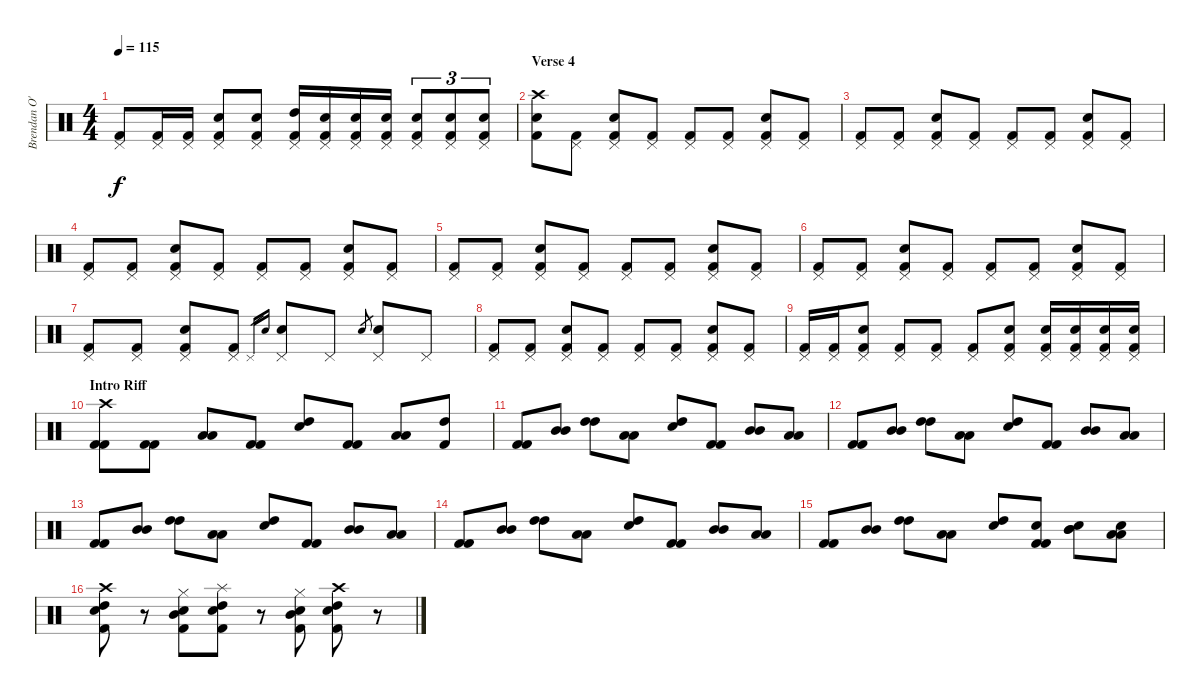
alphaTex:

\track ("Brendan O'Neill" "Brendan O'") {instrument percussion}
\staff {score}
\articulation defaults
\ts (4 4)
\tempo 115
\clef neutral
\ks c
("Pedal Hi-Hat (hit)" "Kick (hit) 2").8{dy f} ("Pedal Hi-Hat (hit)" "Kick (hit) 2").16 ("Pedal Hi-Hat (hit)" "Kick (hit) 2").16 ("Pedal Hi-Hat (hit)" "Snare (hit) 2" "Kick (hit) 2").8 ("Pedal Hi-Hat (hit)" "Electric Snare (hit)" "Kick (hit) 2").8 ("Pedal Hi-Hat (hit)" "High Tom (hit)" "Kick (hit) 2").16 ("Pedal Hi-Hat (hit)" "Snare (hit) 2" "Kick (hit) 2").16 ("Pedal Hi-Hat (hit)" "Snare (hit) 2" "Kick (hit) 2").16 ("Pedal Hi-Hat (hit)" "Electric Snare (hit)" "Kick (hit) 2").16 ("Pedal Hi-Hat (hit)" "Snare (hit) 2" "Kick (hit) 2").8{tu (3 2)} ("Pedal Hi-Hat (hit)" "Snare (hit) 2" "Kick (hit) 2").8{tu (3 2)} ("Pedal Hi-Hat (hit)" "Snare (hit) 2" "Kick (hit) 2").8{tu (3 2)} |
\section ("" "Verse 4")
("Crash high (hit)" "Snare (hit) 2" "Kick (hit) 2").8 ("Pedal Hi-Hat (hit)" "Kick (hit) 2").8 ("Pedal Hi-Hat (hit)" "Snare (hit) 2" "Kick (hit) 2").8 ("Pedal Hi-Hat (hit)" "Kick (hit) 2").8 ("Pedal Hi-Hat (hit)" "Kick (hit) 2").8 ("Pedal Hi-Hat (hit)" "Kick (hit) 2").8 ("Pedal Hi-Hat (hit)" "Snare (hit) 2" "Kick (hit) 2").8 ("Pedal Hi-Hat (hit)" "Kick (hit) 2").8 |
("Pedal Hi-Hat (hit)" "Kick (hit) 2").8 ("Pedal Hi-Hat (hit)" "Kick (hit) 2").8 ("Pedal Hi-Hat (hit)" "Snare (hit) 2" "Kick (hit) 2").8 ("Pedal Hi-Hat (hit)" "Kick (hit) 2").8 ("Pedal Hi-Hat (hit)" "Kick (hit) 2").8 ("Pedal Hi-Hat (hit)" "Kick (hit) 2").8 ("Pedal Hi-Hat (hit)" "Snare (hit) 2" "Kick (hit) 2").8 ("Pedal Hi-Hat (hit)" "Kick (hit) 2").8 |
("Pedal Hi-Hat (hit)" "Kick (hit) 2").8 ("Pedal Hi-Hat (hit)" "Kick (hit) 2").8 ("Pedal Hi-Hat (hit)" "Snare (hit) 2" "Kick (hit) 2").8 ("Pedal Hi-Hat (hit)" "Kick (hit) 2").8 ("Pedal Hi-Hat (hit)" "Kick (hit) 2").8 ("Pedal Hi-Hat (hit)" "Kick (hit) 2").8 ("Pedal Hi-Hat (hit)" "Snare (hit) 2" "Kick (hit) 2").8 ("Pedal Hi-Hat (hit)" "Kick (hit) 2").8 |
("Pedal Hi-Hat (hit)" "Kick (hit) 2").8 ("Pedal Hi-Hat (hit)" "Kick (hit) 2").8 ("Pedal Hi-Hat (hit)" "Snare (hit) 2" "Kick (hit) 2").8 ("Pedal Hi-Hat (hit)" "Kick (hit) 2").8 ("Pedal Hi-Hat (hit)" "Kick (hit) 2").8 ("Pedal Hi-Hat (hit)" "Kick (hit) 2").8 ("Pedal Hi-Hat (hit)" "Snare (hit) 2" "Kick (hit) 2").8 ("Pedal Hi-Hat (hit)" "Kick (hit) 2").8 |
("Pedal Hi-Hat (hit)" "Kick (hit) 2").8 ("Pedal Hi-Hat (hit)" "Kick (hit) 2").8 ("Pedal Hi-Hat (hit)" "Snare (hit) 2" "Kick (hit) 2").8 ("Pedal Hi-Hat (hit)" "Kick (hit) 2").8 ("Pedal Hi-Hat (hit)" "Kick (hit) 2").8 ("Pedal Hi-Hat (hit)" "Kick (hit) 2").8 ("Pedal Hi-Hat (hit)" "Snare (hit) 2" "Kick (hit) 2").8 ("Pedal Hi-Hat (hit)" "Kick (hit) 2").8 |
("Pedal Hi-Hat (hit)" "Kick (hit) 2").8 ("Pedal Hi-Hat (hit)" "Kick (hit) 2").8 ("Pedal Hi-Hat (hit)" "Snare (hit) 2" "Kick (hit) 2").8 ("Pedal Hi-Hat (hit)" "Kick (hit) 2").8 "Pedal Hi-Hat (hit)".16{gr} "Snare (hit) 2".16{gr} ("Pedal Hi-Hat (hit)" "Electric Snare (hit)").8 "Pedal Hi-Hat (hit)".8 "Snare (hit) 2".8{gr} ("Pedal Hi-Hat (hit)" "Electric Snare (hit)").8 "Pedal Hi-Hat (hit)".8 |
("Pedal Hi-Hat (hit)" "Kick (hit) 2").8 ("Pedal Hi-Hat (hit)" "Kick (hit) 2").8 ("Pedal Hi-Hat (hit)" "Snare (hit) 2" "Kick (hit) 2").8 ("Pedal Hi-Hat (hit)" "Kick (hit) 2").8 ("Pedal Hi-Hat (hit)" "Kick (hit) 2").8 ("Pedal Hi-Hat (hit)" "Kick (hit) 2").8 ("Pedal Hi-Hat (hit)" "Snare (hit) 2" "Kick (hit) 2").8 ("Pedal Hi-Hat (hit)" "Kick (hit) 2").8 |
("Pedal Hi-Hat (hit)" "Kick (hit) 2").16 ("Pedal Hi-Hat (hit)" "Kick (hit) 2").16 ("Pedal Hi-Hat (hit)" "Snare (hit) 2" "Kick (hit) 2").8 ("Pedal Hi-Hat (hit)" "Kick (hit) 2").8 ("Pedal Hi-Hat (hit)" "Kick (hit) 2").8 ("Pedal Hi-Hat (hit)" "Kick (hit) 2").8 ("Pedal Hi-Hat (hit)" "Snare (hit) 2" "Kick (hit) 2").8 ("Pedal Hi-Hat (hit)" "Electric Snare (hit)" "Kick (hit) 2").16 ("Pedal Hi-Hat (hit)" "Electric Snare (hit)" "Kick (hit) 2").16 ("Pedal Hi-Hat (hit)" "Electric Snare (hit)" "Kick (hit) 2").16 ("Pedal Hi-Hat (hit)" "Electric Snare (hit)" "Kick (hit) 2").16 |
\section ("" "Intro Riff")
("Crash high (hit)" "Kick (hit) 2" "Kick (hit) 2").8 ("Kick (hit) 2" "Kick (hit) 2").8 ("Low Tom (hit)" "Low Tom (hit)").8 ("Kick (hit) 2" "Kick (hit) 2").8 ("High Tom (hit)" "Electric Snare (hit)").8 ("Kick (hit) 2" "Kick (hit) 2").8 ("Low Tom (hit)" "Low Tom (hit)").8 ("High Tom (hit)" "Kick (hit) 2").8 |
("Kick (hit) 2" "Kick (hit) 2").8 ("Mid Tom (hit)" "Mid Tom (hit)").8 ("High Tom (hit)" "High Tom (hit)").8 ("Low Tom (hit)" "Low Tom (hit)").8 ("High Tom (hit)" "Electric Snare (hit)").8 ("Kick (hit) 2" "Kick (hit) 2").8 ("Mid Tom (hit)" "Mid Tom (hit)").8 ("Low Tom (hit)" "Low Tom (hit)").8 |
("Kick (hit) 2" "Kick (hit) 2").8 ("Mid Tom (hit)" "Mid Tom (hit)").8 ("High Tom (hit)" "High Tom (hit)").8 ("Low Tom (hit)" "Low Tom (hit)").8 ("High Tom (hit)" "Electric Snare (hit)").8 ("Kick (hit) 2" "Kick (hit) 2").8 ("Mid Tom (hit)" "Mid Tom (hit)").8 ("Low Tom (hit)" "Low Tom (hit)").8 |
("Kick (hit) 2" "Kick (hit) 2").8 ("Mid Tom (hit)" "Mid Tom (hit)").8 ("High Tom (hit)" "High Tom (hit)").8 ("Low Tom (hit)" "Low Tom (hit)").8 ("High Tom (hit)" "Electric Snare (hit)").8 ("Kick (hit) 2" "Kick (hit) 2").8 ("Mid Tom (hit)" "Mid Tom (hit)").8 ("Low Tom (hit)" "Low Tom (hit)").8 |
("Kick (hit) 2" "Kick (hit) 2").8 ("Mid Tom (hit)" "Mid Tom (hit)").8 ("High Tom (hit)" "High Tom (hit)").8 ("Low Tom (hit)" "Low Tom (hit)").8 ("High Tom (hit)" "Electric Snare (hit)").8 ("Kick (hit) 2" "Kick (hit) 2").8 ("Mid Tom (hit)" "Mid Tom (hit)").8 ("Low Tom (hit)" "Low Tom (hit)").8 |
("Kick (hit) 2" "Kick (hit) 2").8 ("Mid Tom (hit)" "Mid Tom (hit)").8 ("High Tom (hit)" "High Tom (hit)").8 ("Low Tom (hit)" "Low Tom (hit)").8 ("High Tom (hit)" "Electric Snare (hit)").8 ("Electric Snare (hit)" "Kick (hit) 2" "Kick (hit) 2").8 ("Snare (hit) 2" "Mid Tom (hit)" "Mid Tom (hit)").8 ("Electric Snare (hit)" "Low Tom (hit)" "Low Tom (hit)").8 |
("Crash high (hit)" "High Tom (hit)" "Electric Snare (hit)" "Kick (hit) 2").8 r.8 ("Hi-Hat (closed)" "Mid Tom (hit)" "Snare (hit) 2" "Kick (hit) 2").8 ("Splash (hit)" "High Tom (hit)" "Electric Snare (hit)" "Kick (hit) 2").8 r.8 ("Hi-Hat (closed)" "Mid Tom (hit)" "Snare (hit) 2" "Kick (hit) 2").8 ("Crash high (hit)" "High Tom (hit)" "Electric Snare (hit)" "Kick (hit) 2").8 r.8
